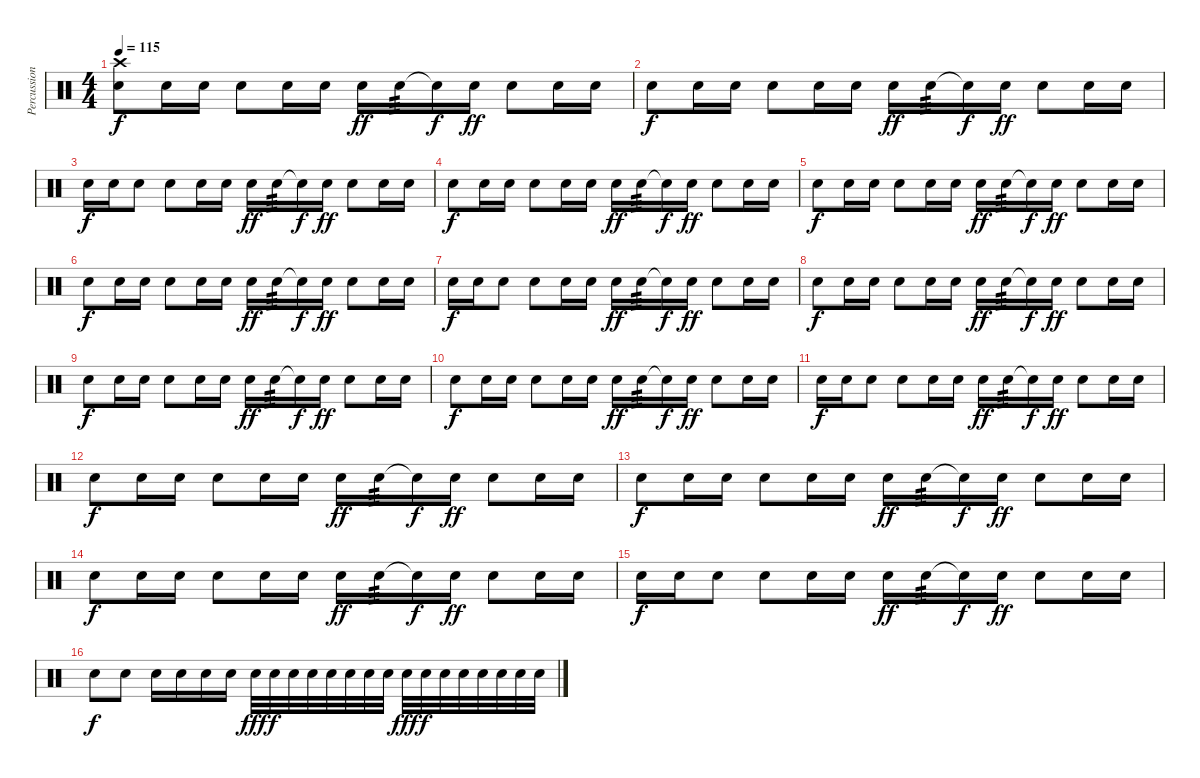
\track ("Percussions" "Percussion") {instrument percussion}
\staff {score}
\articulation defaults
\ts (4 4)
\tempo 115
\clef neutral
\ks c
("Crash high (hit)" "Electric Snare (hit)").8{dy f} "Electric Snare (hit)".16 "Electric Snare (hit)".16 "Electric Snare (hit)".8 "Electric Snare (hit)".16 "Electric Snare (hit)".16 "Electric Snare (hit)".16{dy ff} "Electric Snare (hit)".16{tp 3} "Electric Snare (hit)"{t}.16{dy f} "Electric Snare (hit)".16{dy ff} "Electric Snare (hit)".8 "Electric Snare (hit)".16 "Electric Snare (hit)".16 |
"Electric Snare (hit)".8{dy f} "Electric Snare (hit)".16 "Electric Snare (hit)".16 "Electric Snare (hit)".8 "Electric Snare (hit)".16 "Electric Snare (hit)".16 "Electric Snare (hit)".16{dy ff} "Electric Snare (hit)".16{tp 3} "Electric Snare (hit)"{t}.16{dy f} "Electric Snare (hit)".16{dy ff} "Electric Snare (hit)".8 "Electric Snare (hit)".16 "Electric Snare (hit)".16 |
"Electric Snare (hit)".16{dy f} "Electric Snare (hit)".16 "Electric Snare (hit)".8 "Electric Snare (hit)".8 "Electric Snare (hit)".16 "Electric Snare (hit)".16 "Electric Snare (hit)".16{dy ff} "Electric Snare (hit)".16{tp 3} "Electric Snare (hit)"{t}.16{dy f} "Electric Snare (hit)".16{dy ff} "Electric Snare (hit)".8 "Electric Snare (hit)".16 "Electric Snare (hit)".16 |
"Electric Snare (hit)".8{dy f} "Electric Snare (hit)".16 "Electric Snare (hit)".16 "Electric Snare (hit)".8 "Electric Snare (hit)".16 "Electric Snare (hit)".16 "Electric Snare (hit)".16{dy ff} "Electric Snare (hit)".16{tp 3} "Electric Snare (hit)"{t}.16{dy f} "Electric Snare (hit)".16{dy ff} "Electric Snare (hit)".8 "Electric Snare (hit)".16 "Electric Snare (hit)".16 |
"Electric Snare (hit)".8{dy f} "Electric Snare (hit)".16 "Electric Snare (hit)".16 "Electric Snare (hit)".8 "Electric Snare (hit)".16 "Electric Snare (hit)".16 "Electric Snare (hit)".16{dy ff} "Electric Snare (hit)".16{tp 3} "Electric Snare (hit)"{t}.16{dy f} "Electric Snare (hit)".16{dy ff} "Electric Snare (hit)".8 "Electric Snare (hit)".16 "Electric Snare (hit)".16 |
"Electric Snare (hit)".8{dy f} "Electric Snare (hit)".16 "Electric Snare (hit)".16 "Electric Snare (hit)".8 "Electric Snare (hit)".16 "Electric Snare (hit)".16 "Electric Snare (hit)".16{dy ff} "Electric Snare (hit)".16{tp 3} "Electric Snare (hit)"{t}.16{dy f} "Electric Snare (hit)".16{dy ff} "Electric Snare (hit)".8 "Electric Snare (hit)".16 "Electric Snare (hit)".16 |
"Electric Snare (hit)".16{dy f} "Electric Snare (hit)".16 "Electric Snare (hit)".8 "Electric Snare (hit)".8 "Electric Snare (hit)".16 "Electric Snare (hit)".16 "Electric Snare (hit)".16{dy ff} "Electric Snare (hit)".16{tp 3} "Electric Snare (hit)"{t}.16{dy f} "Electric Snare (hit)".16{dy ff} "Electric Snare (hit)".8 "Electric Snare (hit)".16 "Electric Snare (hit)".16 |
"Electric Snare (hit)".8{dy f} "Electric Snare (hit)".16 "Electric Snare (hit)".16 "Electric Snare (hit)".8 "Electric Snare (hit)".16 "Electric Snare (hit)".16 "Electric Snare (hit)".16{dy ff} "Electric Snare (hit)".16{tp 3} "Electric Snare (hit)"{t}.16{dy f} "Electric Snare (hit)".16{dy ff} "Electric Snare (hit)".8 "Electric Snare (hit)".16 "Electric Snare (hit)".16 |
"Electric Snare (hit)".8{dy f} "Electric Snare (hit)".16 "Electric Snare (hit)".16 "Electric Snare (hit)".8 "Electric Snare (hit)".16 "Electric Snare (hit)".16 "Electric Snare (hit)".16{dy ff} "Electric Snare (hit)".16{tp 3} "Electric Snare (hit)"{t}.16{dy f} "Electric Snare (hit)".16{dy ff} "Electric Snare (hit)".8 "Electric Snare (hit)".16 "Electric Snare (hit)".16 |
"Electric Snare (hit)".8{dy f} "Electric Snare (hit)".16 "Electric Snare (hit)".16 "Electric Snare (hit)".8 "Electric Snare (hit)".16 "Electric Snare (hit)".16 "Electric Snare (hit)".16{dy ff} "Electric Snare (hit)".16{tp 3} "Electric Snare (hit)"{t}.16{dy f} "Electric Snare (hit)".16{dy ff} "Electric Snare (hit)".8 "Electric Snare (hit)".16 "Electric Snare (hit)".16 |
"Electric Snare (hit)".16{dy f} "Electric Snare (hit)".16 "Electric Snare (hit)".8 "Electric Snare (hit)".8 "Electric Snare (hit)".16 "Electric Snare (hit)".16 "Electric Snare (hit)".16{dy ff} "Electric Snare (hit)".16{tp 3} "Electric Snare (hit)"{t}.16{dy f} "Electric Snare (hit)".16{dy ff} "Electric Snare (hit)".8 "Electric Snare (hit)".16 "Electric Snare (hit)".16 |
"Electric Snare (hit)".8{dy f} "Electric Snare (hit)".16 "Electric Snare (hit)".16 "Electric Snare (hit)".8 "Electric Snare (hit)".16 "Electric Snare (hit)".16 "Electric Snare (hit)".16{dy ff} "Electric Snare (hit)".16{tp 3} "Electric Snare (hit)"{t}.16{dy f} "Electric Snare (hit)".16{dy ff} "Electric Snare (hit)".8 "Electric Snare (hit)".16 "Electric Snare (hit)".16 |
"Electric Snare (hit)".8{dy f} "Electric Snare (hit)".16 "Electric Snare (hit)".16 "Electric Snare (hit)".8 "Electric Snare (hit)".16 "Electric Snare (hit)".16 "Electric Snare (hit)".16{dy ff} "Electric Snare (hit)".16{tp 3} "Electric Snare (hit)"{t}.16{dy f} "Electric Snare (hit)".16{dy ff} "Electric Snare (hit)".8 "Electric Snare (hit)".16 "Electric Snare (hit)".16 |
"Electric Snare (hit)".8{dy f} "Electric Snare (hit)".16 "Electric Snare (hit)".16 "Electric Snare (hit)".8 "Electric Snare (hit)".16 "Electric Snare (hit)".16 "Electric Snare (hit)".16{dy ff} "Electric Snare (hit)".16{tp 3} "Electric Snare (hit)"{t}.16{dy f} "Electric Snare (hit)".16{dy ff} "Electric Snare (hit)".8 "Electric Snare (hit)".16 "Electric Snare (hit)".16 |
"Electric Snare (hit)".16{dy f} "Electric Snare (hit)".16 "Electric Snare (hit)".8 "Electric Snare (hit)".8 "Electric Snare (hit)".16 "Electric Snare (hit)".16 "Electric Snare (hit)".16{dy ff} "Electric Snare (hit)".16{tp 3} "Electric Snare (hit)"{t}.16{dy f} "Electric Snare (hit)".16{dy ff} "Electric Snare (hit)".8 "Electric Snare (hit)".16 "Electric Snare (hit)".16 |
"Electric Snare (hit)".8{dy f} "Electric Snare (hit)".8 "Electric Snare (hit)".16 "Electric Snare (hit)".16 "Electric Snare (hit)".16 "Electric Snare (hit)".16 "Electric Snare (hit)".32{dy fff} "Electric Snare (hit)".32{dy f} "Electric Snare (hit)".32 "Electric Snare (hit)".32 "Electric Snare (hit)".32 "Electric Snare (hit)".32 "Electric Snare (hit)".32 "Electric Snare (hit)".32 "Electric Snare (hit)".32{dy fff} "Electric Snare (hit)".32{dy f} "Electric Snare (hit)".32 "Electric Snare (hit)".32 "Electric Snare (hit)".32 "Electric Snare (hit)".32 "Electric Snare (hit)".32 "Electric Snare (hit)".32
